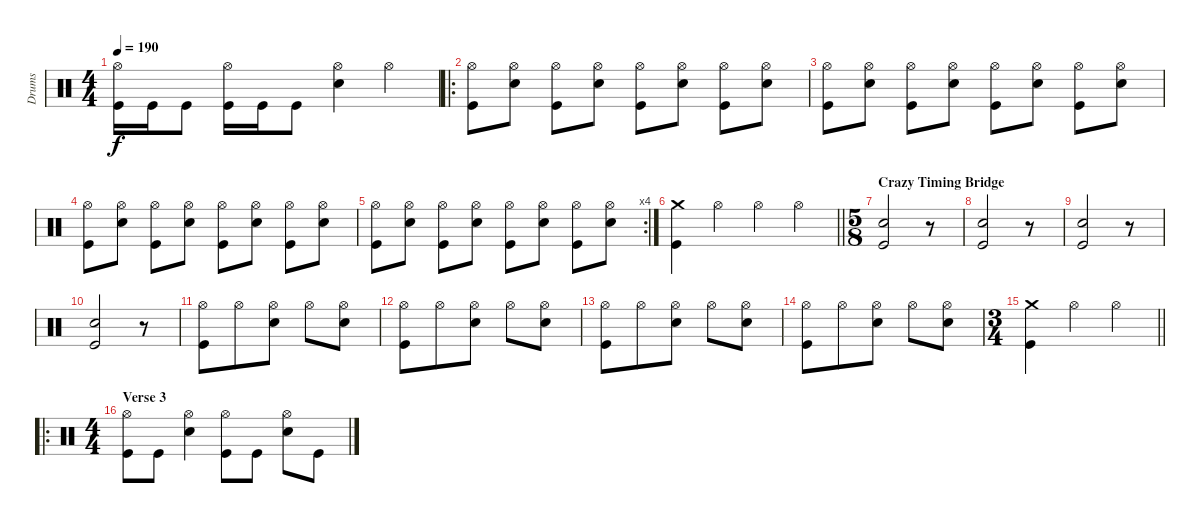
\track ("Drums" "Drums") {instrument percussion}
\staff {score}
\articulation defaults
\ts (4 4)
\tempo 190
\clef neutral
\ks c
("Hi-Hat (open)" "Kick (hit)").16{dy f} "Kick (hit)".16 "Kick (hit)".8 ("Hi-Hat (open)" "Kick (hit)").16 "Kick (hit)".16 "Kick (hit)".8 ("Hi-Hat (open)" "Snare (hit) 2").4 "Hi-Hat (open)".4 |
\ro
("Hi-Hat (open)" "Kick (hit)").8 ("Hi-Hat (open)" "Snare (hit) 2").8 ("Hi-Hat (open)" "Kick (hit)").8 ("Hi-Hat (open)" "Snare (hit) 2").8 ("Hi-Hat (open)" "Kick (hit)").8 ("Hi-Hat (open)" "Snare (hit) 2").8 ("Hi-Hat (open)" "Kick (hit)").8 ("Hi-Hat (open)" "Snare (hit) 2").8 |
("Hi-Hat (open)" "Kick (hit)").8 ("Hi-Hat (open)" "Snare (hit) 2").8 ("Hi-Hat (open)" "Kick (hit)").8 ("Hi-Hat (open)" "Snare (hit) 2").8 ("Hi-Hat (open)" "Kick (hit)").8 ("Hi-Hat (open)" "Snare (hit) 2").8 ("Hi-Hat (open)" "Kick (hit)").8 ("Hi-Hat (open)" "Snare (hit) 2").8 |
("Hi-Hat (open)" "Kick (hit)").8 ("Hi-Hat (open)" "Snare (hit) 2").8 ("Hi-Hat (open)" "Kick (hit)").8 ("Hi-Hat (open)" "Snare (hit) 2").8 ("Hi-Hat (open)" "Kick (hit)").8 ("Hi-Hat (open)" "Snare (hit) 2").8 ("Hi-Hat (open)" "Kick (hit)").8 ("Hi-Hat (open)" "Snare (hit) 2").8 |
\rc 4
("Hi-Hat (open)" "Kick (hit)").8 ("Hi-Hat (open)" "Snare (hit) 2").8 ("Hi-Hat (open)" "Kick (hit)").8 ("Hi-Hat (open)" "Snare (hit) 2").8 ("Hi-Hat (open)" "Kick (hit)").8 ("Hi-Hat (open)" "Snare (hit) 2").8 ("Hi-Hat (open)" "Kick (hit)").8 ("Hi-Hat (open)" "Snare (hit) 2").8 |
\barLineRight lightlight
("Crash medium (hit)" "Kick (hit)").4 "Hi-Hat (open)".4 "Hi-Hat (open)".4 "Hi-Hat (open)".4 |
\ts (5 8)
\section ("" "Crazy Timing Bridge")
("Snare (hit) 2" "Kick (hit)").2 r.8 |
("Snare (hit) 2" "Kick (hit)").2 r.8 |
("Snare (hit) 2" "Kick (hit)").2 r.8 |
("Snare (hit) 2" "Kick (hit)").2 r.8 |
("Hi-Hat (open)" "Kick (hit)").8 "Hi-Hat (open)".8 ("Hi-Hat (open)" "Snare (hit) 2").8 "Hi-Hat (open)".8 ("Hi-Hat (open)" "Snare (hit) 2").8 |
("Hi-Hat (open)" "Kick (hit)").8 "Hi-Hat (open)".8 ("Hi-Hat (open)" "Snare (hit) 2").8 "Hi-Hat (open)".8 ("Hi-Hat (open)" "Snare (hit) 2").8 |
("Hi-Hat (open)" "Kick (hit)").8 "Hi-Hat (open)".8 ("Hi-Hat (open)" "Snare (hit) 2").8 "Hi-Hat (open)".8 ("Hi-Hat (open)" "Snare (hit) 2").8 |
("Hi-Hat (open)" "Kick (hit)").8 "Hi-Hat (open)".8 ("Hi-Hat (open)" "Snare (hit) 2").8 "Hi-Hat (open)".8 ("Hi-Hat (open)" "Snare (hit) 2").8 |
\ts (3 4)
\barLineRight lightlight
("Crash medium (hit)" "Kick (hit)").4 "Hi-Hat (open)".4 "Hi-Hat (open)".4 |
\ro
\ts (4 4)
\section ("" "Verse 3")
("Hi-Hat (open)" "Kick (hit)").8 "Kick (hit)".8 ("Hi-Hat (open)" "Snare (hit) 2").4 ("Hi-Hat (open)" "Kick (hit)").8 "Kick (hit)".8 ("Hi-Hat (open)" "Snare (hit) 2").8 "Kick (hit)".8
